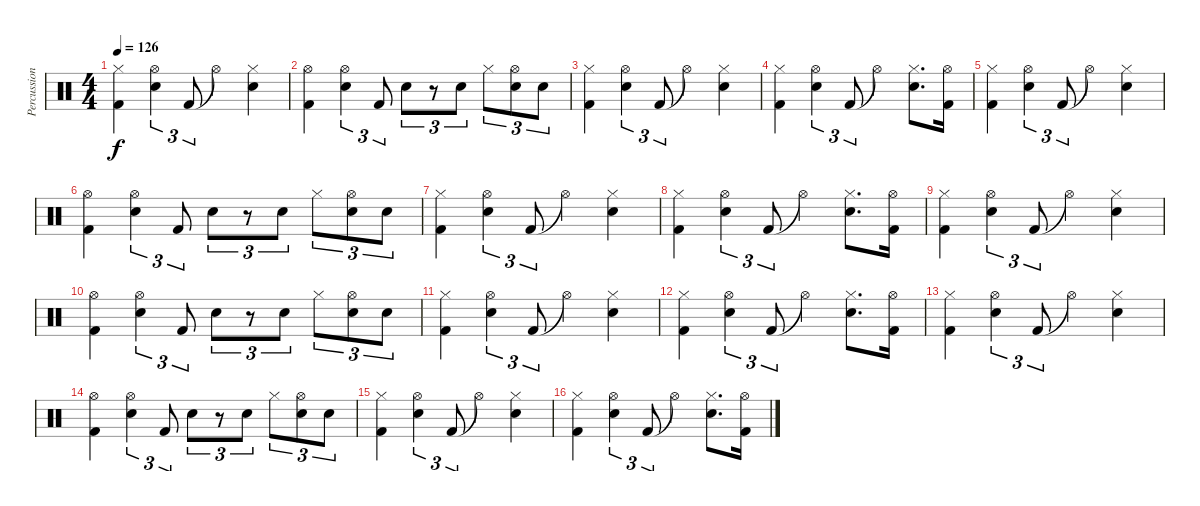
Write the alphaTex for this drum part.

\track ("Percussion" "Percussion") {instrument percussion}
\staff {score}
\articulation defaults
\ts (4 4)
\tempo 126
\clef neutral
\ks c
("Hi-Hat (closed)" "Kick (hit) 2").4{dy f} ("Hi-Hat (open)" "Snare (hit) 2").4{tu (3 2)} "Kick (hit) 2".8{tu (3 2)} "Hi-Hat (open)"{t}.4 ("Hi-Hat (closed)" "Snare (hit) 2").4 |
("Hi-Hat (open)" "Kick (hit) 2").4 ("Hi-Hat (open)" "Snare (hit) 2").4{tu (3 2)} "Kick (hit) 2".8{tu (3 2)} "Snare (hit) 2".8{tu (3 2)} r.8{tu (3 2)} "Snare (hit) 2".8{tu (3 2)} "Hi-Hat (closed)".8{tu (3 2)} ("Hi-Hat (open)" "Snare (hit) 2").8{tu (3 2)} "Snare (hit) 2".8{tu (3 2)} |
("Hi-Hat (closed)" "Kick (hit) 2").4 ("Hi-Hat (open)" "Snare (hit) 2").4{tu (3 2)} "Kick (hit) 2".8{tu (3 2)} "Hi-Hat (open)"{t}.4 ("Hi-Hat (closed)" "Snare (hit) 2").4 |
("Hi-Hat (closed)" "Kick (hit) 2").4 ("Hi-Hat (open)" "Snare (hit) 2").4{tu (3 2)} "Kick (hit) 2".8{tu (3 2)} "Hi-Hat (open)"{t}.4 ("Hi-Hat (closed)" "Snare (hit) 2").8{d} ("Hi-Hat (open)" "Kick (hit) 2").16 |
("Hi-Hat (closed)" "Kick (hit) 2").4 ("Hi-Hat (open)" "Snare (hit) 2").4{tu (3 2)} "Kick (hit) 2".8{tu (3 2)} "Hi-Hat (open)"{t}.4 ("Hi-Hat (closed)" "Snare (hit) 2").4 |
("Hi-Hat (open)" "Kick (hit) 2").4 ("Hi-Hat (open)" "Snare (hit) 2").4{tu (3 2)} "Kick (hit) 2".8{tu (3 2)} "Snare (hit) 2".8{tu (3 2)} r.8{tu (3 2)} "Snare (hit) 2".8{tu (3 2)} "Hi-Hat (closed)".8{tu (3 2)} ("Hi-Hat (open)" "Snare (hit) 2").8{tu (3 2)} "Snare (hit) 2".8{tu (3 2)} |
("Hi-Hat (closed)" "Kick (hit) 2").4 ("Hi-Hat (open)" "Snare (hit) 2").4{tu (3 2)} "Kick (hit) 2".8{tu (3 2)} "Hi-Hat (open)"{t}.4 ("Hi-Hat (closed)" "Snare (hit) 2").4 |
("Hi-Hat (closed)" "Kick (hit) 2").4 ("Hi-Hat (open)" "Snare (hit) 2").4{tu (3 2)} "Kick (hit) 2".8{tu (3 2)} "Hi-Hat (open)"{t}.4 ("Hi-Hat (closed)" "Snare (hit) 2").8{d} ("Hi-Hat (open)" "Kick (hit) 2").16 |
("Hi-Hat (closed)" "Kick (hit) 2").4 ("Hi-Hat (open)" "Snare (hit) 2").4{tu (3 2)} "Kick (hit) 2".8{tu (3 2)} "Hi-Hat (open)"{t}.4 ("Hi-Hat (closed)" "Snare (hit) 2").4 |
("Hi-Hat (open)" "Kick (hit) 2").4 ("Hi-Hat (open)" "Snare (hit) 2").4{tu (3 2)} "Kick (hit) 2".8{tu (3 2)} "Snare (hit) 2".8{tu (3 2)} r.8{tu (3 2)} "Snare (hit) 2".8{tu (3 2)} "Hi-Hat (closed)".8{tu (3 2)} ("Hi-Hat (open)" "Snare (hit) 2").8{tu (3 2)} "Snare (hit) 2".8{tu (3 2)} |
("Hi-Hat (closed)" "Kick (hit) 2").4 ("Hi-Hat (open)" "Snare (hit) 2").4{tu (3 2)} "Kick (hit) 2".8{tu (3 2)} "Hi-Hat (open)"{t}.4 ("Hi-Hat (closed)" "Snare (hit) 2").4 |
("Hi-Hat (closed)" "Kick (hit) 2").4 ("Hi-Hat (open)" "Snare (hit) 2").4{tu (3 2)} "Kick (hit) 2".8{tu (3 2)} "Hi-Hat (open)"{t}.4 ("Hi-Hat (closed)" "Snare (hit) 2").8{d} ("Hi-Hat (open)" "Kick (hit) 2").16 |
("Hi-Hat (closed)" "Kick (hit) 2").4 ("Hi-Hat (open)" "Snare (hit) 2").4{tu (3 2)} "Kick (hit) 2".8{tu (3 2)} "Hi-Hat (open)"{t}.4 ("Hi-Hat (closed)" "Snare (hit) 2").4 |
("Hi-Hat (open)" "Kick (hit) 2").4 ("Hi-Hat (open)" "Snare (hit) 2").4{tu (3 2)} "Kick (hit) 2".8{tu (3 2)} "Snare (hit) 2".8{tu (3 2)} r.8{tu (3 2)} "Snare (hit) 2".8{tu (3 2)} "Hi-Hat (closed)".8{tu (3 2)} ("Hi-Hat (open)" "Snare (hit) 2").8{tu (3 2)} "Snare (hit) 2".8{tu (3 2)} |
("Hi-Hat (closed)" "Kick (hit) 2").4 ("Hi-Hat (open)" "Snare (hit) 2").4{tu (3 2)} "Kick (hit) 2".8{tu (3 2)} "Hi-Hat (open)"{t}.4 ("Hi-Hat (closed)" "Snare (hit) 2").4 |
("Hi-Hat (closed)" "Kick (hit) 2").4 ("Hi-Hat (open)" "Snare (hit) 2").4{tu (3 2)} "Kick (hit) 2".8{tu (3 2)} "Hi-Hat (open)"{t}.4 ("Hi-Hat (closed)" "Snare (hit) 2").8{d} ("Hi-Hat (open)" "Kick (hit) 2").16
